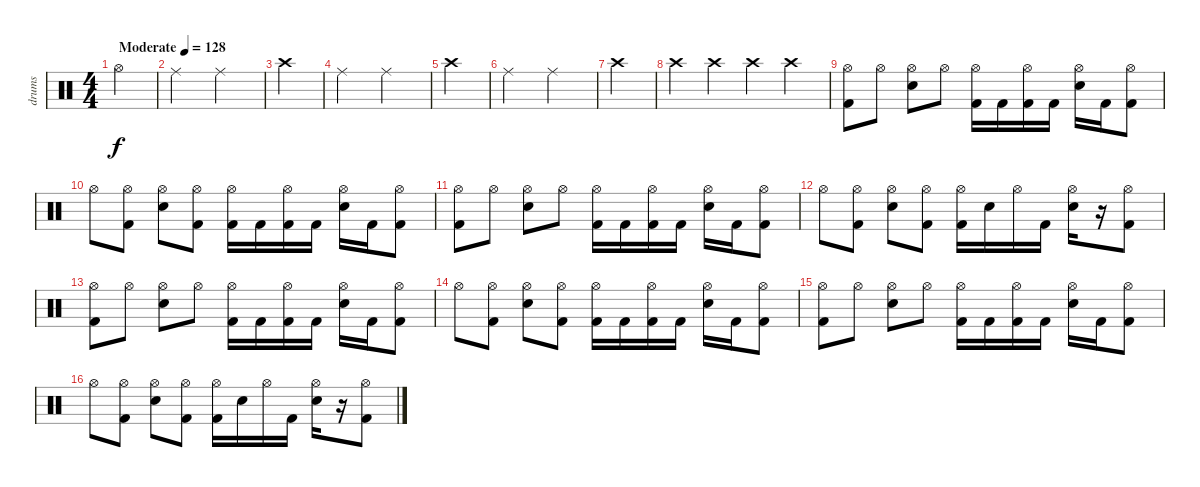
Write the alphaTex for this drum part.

\track ("drums" "drums") {instrument percussion}
\staff {score}
\articulation defaults
\ts (4 4)
\tempo (128 "Moderate")
\clef neutral
\ks c "Hi-Hat (open)".4{dy f}
|
"Ride (middle)".2 "Ride (middle)".2 |
"Crash high (hit)".4 |
"Ride (middle)".2 "Ride (middle)".2 |
"Crash high (hit)".4 |
"Ride (middle)".2 "Ride (middle)".2 |
"Crash high (hit)".4 |
"Crash high (hit)".4 "Crash high (hit)".4 "Crash high (hit)".4 "Crash high (hit)".4 |
("Hi-Hat (open)" "Kick (hit) 2").8 "Hi-Hat (open)".8 ("Hi-Hat (open)" "Snare (hit) 2").8 "Hi-Hat (open)".8 ("Hi-Hat (open)" "Kick (hit) 2").16 "Kick (hit) 2".16 ("Hi-Hat (open)" "Kick (hit) 2").16 "Kick (hit) 2".16 ("Hi-Hat (open)" "Snare (hit) 2").16 "Kick (hit) 2".16 ("Hi-Hat (open)" "Kick (hit) 2").8 |
"Hi-Hat (open)".8 ("Hi-Hat (open)" "Kick (hit) 2").8 ("Hi-Hat (open)" "Snare (hit) 2").8 ("Hi-Hat (open)" "Kick (hit) 2").8 ("Hi-Hat (open)" "Kick (hit) 2").16 "Kick (hit) 2".16 ("Hi-Hat (open)" "Kick (hit) 2").16 "Kick (hit) 2".16 ("Hi-Hat (open)" "Snare (hit) 2").16 "Kick (hit) 2".16 ("Hi-Hat (open)" "Kick (hit) 2").8 |
("Hi-Hat (open)" "Kick (hit) 2").8 "Hi-Hat (open)".8 ("Hi-Hat (open)" "Snare (hit) 2").8 "Hi-Hat (open)".8 ("Hi-Hat (open)" "Kick (hit) 2").16 "Kick (hit) 2".16 ("Hi-Hat (open)" "Kick (hit) 2").16 "Kick (hit) 2".16 ("Hi-Hat (open)" "Snare (hit) 2").16 "Kick (hit) 2".16 ("Hi-Hat (open)" "Kick (hit) 2").8 |
"Hi-Hat (open)".8 ("Hi-Hat (open)" "Kick (hit) 2").8 ("Hi-Hat (open)" "Snare (hit) 2").8 ("Hi-Hat (open)" "Kick (hit) 2").8 ("Hi-Hat (open)" "Kick (hit) 2").16 "Snare (hit) 2".16 "Hi-Hat (open)".16 "Kick (hit) 2".16 ("Hi-Hat (open)" "Snare (hit) 2").16 r.16 ("Hi-Hat (open)" "Kick (hit) 2").8 |
("Hi-Hat (open)" "Kick (hit) 2").8 "Hi-Hat (open)".8 ("Hi-Hat (open)" "Snare (hit) 2").8 "Hi-Hat (open)".8 ("Hi-Hat (open)" "Kick (hit) 2").16 "Kick (hit) 2".16 ("Hi-Hat (open)" "Kick (hit) 2").16 "Kick (hit) 2".16 ("Hi-Hat (open)" "Snare (hit) 2").16 "Kick (hit) 2".16 ("Hi-Hat (open)" "Kick (hit) 2").8 |
"Hi-Hat (open)".8 ("Hi-Hat (open)" "Kick (hit) 2").8 ("Hi-Hat (open)" "Snare (hit) 2").8 ("Hi-Hat (open)" "Kick (hit) 2").8 ("Hi-Hat (open)" "Kick (hit) 2").16 "Kick (hit) 2".16 ("Hi-Hat (open)" "Kick (hit) 2").16 "Kick (hit) 2".16 ("Hi-Hat (open)" "Snare (hit) 2").16 "Kick (hit) 2".16 ("Hi-Hat (open)" "Kick (hit) 2").8 |
("Hi-Hat (open)" "Kick (hit) 2").8 "Hi-Hat (open)".8 ("Hi-Hat (open)" "Snare (hit) 2").8 "Hi-Hat (open)".8 ("Hi-Hat (open)" "Kick (hit) 2").16 "Kick (hit) 2".16 ("Hi-Hat (open)" "Kick (hit) 2").16 "Kick (hit) 2".16 ("Hi-Hat (open)" "Snare (hit) 2").16 "Kick (hit) 2".16 ("Hi-Hat (open)" "Kick (hit) 2").8 |
"Hi-Hat (open)".8 ("Hi-Hat (open)" "Kick (hit) 2").8 ("Hi-Hat (open)" "Snare (hit) 2").8 ("Hi-Hat (open)" "Kick (hit) 2").8 ("Hi-Hat (open)" "Kick (hit) 2").16 "Snare (hit) 2".16 "Hi-Hat (open)".16 "Kick (hit) 2".16 ("Hi-Hat (open)" "Snare (hit) 2").16 r.16 ("Hi-Hat (open)" "Kick (hit) 2").8
